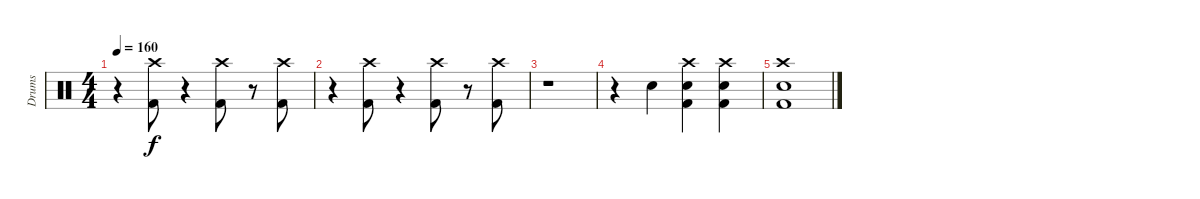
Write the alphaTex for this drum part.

\track ("Drums" "Drums") {instrument percussion}
\staff {score}
\articulation defaults
\ts (4 4)
\tempo 160
\clef neutral
\ks c
r.4{dy f} ("Crash high (hit)" "Kick (hit) 2").8 r.4 ("Crash high (hit)" "Kick (hit) 2").8 r.8 ("Crash high (hit)" "Kick (hit) 2").8 |
r.4 ("Crash high (hit)" "Kick (hit) 2").8 r.4 ("Crash high (hit)" "Kick (hit) 2").8 r.8 ("Crash high (hit)" "Kick (hit) 2").8 |
r.1 |
r.4 "Electric Snare (hit)".4 ("Electric Snare (hit)" "Kick (hit) 2" "Crash high (hit)").4 ("Electric Snare (hit)" "Kick (hit) 2" "Crash high (hit)").4 |
("Crash high (hit)" "Kick (hit) 2" "Electric Snare (hit)").1
